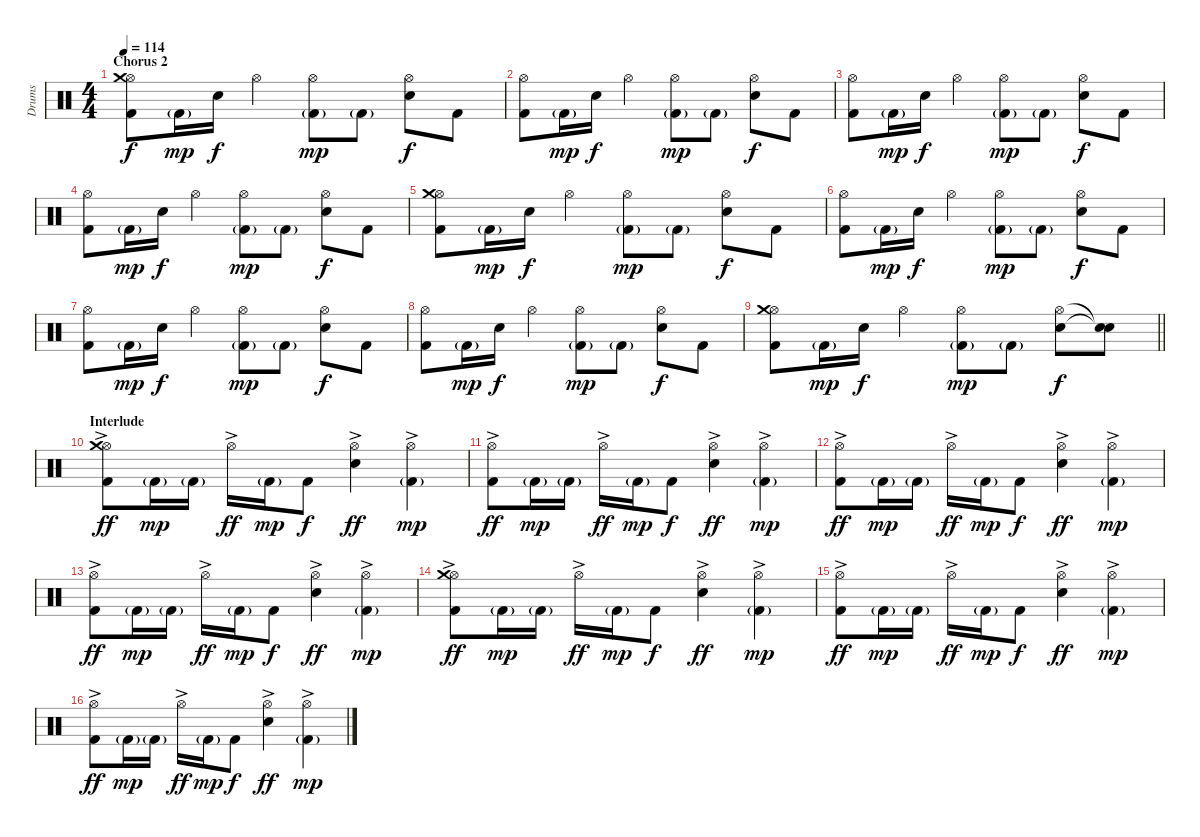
\track ("Drums" "Drums") {instrument percussion}
\staff {score}
\articulation defaults
\ts (4 4)
\section ("" "Chorus 2")
\tempo 114
\clef neutral
\ks c
("Hi-Hat (open)" "Crash medium (hit)" "Kick (hit) 2").8{dy f} "Kick (hit) 2"{g}.16{dy mp} "Electric Snare (hit)".16{dy f} "Hi-Hat (open)".4 ("Hi-Hat (open)" "Kick (hit) 2"{g}).8{dy mp} "Kick (hit) 2"{g}.8 ("Hi-Hat (open)" "Electric Snare (hit)").8{dy f} "Kick (hit) 2".8 |
("Hi-Hat (open)" "Kick (hit) 2").8 "Kick (hit) 2"{g}.16{dy mp} "Electric Snare (hit)".16{dy f} "Hi-Hat (open)".4 ("Hi-Hat (open)" "Kick (hit) 2"{g}).8{dy mp} "Kick (hit) 2"{g}.8 ("Hi-Hat (open)" "Electric Snare (hit)").8{dy f} "Kick (hit) 2".8 |
("Hi-Hat (open)" "Kick (hit) 2").8 "Kick (hit) 2"{g}.16{dy mp} "Electric Snare (hit)".16{dy f} "Hi-Hat (open)".4 ("Hi-Hat (open)" "Kick (hit) 2"{g}).8{dy mp} "Kick (hit) 2"{g}.8 ("Hi-Hat (open)" "Electric Snare (hit)").8{dy f} "Kick (hit) 2".8 |
("Hi-Hat (open)" "Kick (hit) 2").8 "Kick (hit) 2"{g}.16{dy mp} "Electric Snare (hit)".16{dy f} "Hi-Hat (open)".4 ("Hi-Hat (open)" "Kick (hit) 2"{g}).8{dy mp} "Kick (hit) 2"{g}.8 ("Hi-Hat (open)" "Electric Snare (hit)").8{dy f} "Kick (hit) 2".8 |
("Hi-Hat (open)" "Crash medium (hit)" "Kick (hit) 2").8 "Kick (hit) 2"{g}.16{dy mp} "Electric Snare (hit)".16{dy f} "Hi-Hat (open)".4 ("Hi-Hat (open)" "Kick (hit) 2"{g}).8{dy mp} "Kick (hit) 2"{g}.8 ("Hi-Hat (open)" "Electric Snare (hit)").8{dy f} "Kick (hit) 2".8 |
("Hi-Hat (open)" "Kick (hit) 2").8 "Kick (hit) 2"{g}.16{dy mp} "Electric Snare (hit)".16{dy f} "Hi-Hat (open)".4 ("Hi-Hat (open)" "Kick (hit) 2"{g}).8{dy mp} "Kick (hit) 2"{g}.8 ("Hi-Hat (open)" "Electric Snare (hit)").8{dy f} "Kick (hit) 2".8 |
("Hi-Hat (open)" "Kick (hit) 2").8 "Kick (hit) 2"{g}.16{dy mp} "Electric Snare (hit)".16{dy f} "Hi-Hat (open)".4 ("Hi-Hat (open)" "Kick (hit) 2"{g}).8{dy mp} "Kick (hit) 2"{g}.8 ("Hi-Hat (open)" "Electric Snare (hit)").8{dy f} "Kick (hit) 2".8 |
("Hi-Hat (open)" "Kick (hit) 2").8 "Kick (hit) 2"{g}.16{dy mp} "Electric Snare (hit)".16{dy f} "Hi-Hat (open)".4 ("Hi-Hat (open)" "Kick (hit) 2"{g}).8{dy mp} "Kick (hit) 2"{g}.8 ("Hi-Hat (open)" "Electric Snare (hit)").8{dy f} "Kick (hit) 2".8 |
\barLineRight lightlight
("Hi-Hat (open)" "Crash medium (hit)" "Kick (hit) 2").8 "Kick (hit) 2"{g}.16{dy mp} "Electric Snare (hit)".16{dy f} "Hi-Hat (open)".4 ("Hi-Hat (open)" "Kick (hit) 2"{g}).8{dy mp} "Kick (hit) 2"{g}.8 ("Hi-Hat (open)" "Electric Snare (hit)").8{dy f} ("Snare (hit)"{t} "Snare (hit)"{t}).8 |
\section ("" "Interlude")
("Hi-Hat (open)"{ac} "Crash medium (hit)" "Kick (hit) 2").8{dy ff} "Kick (hit) 2"{g}.16{dy mp} "Kick (hit) 2"{g}.16 "Hi-Hat (open)"{ac}.16{dy ff} "Kick (hit) 2"{g}.16{dy mp} "Kick (hit) 2".8{dy f} ("Hi-Hat (open)"{ac} "Electric Snare (hit)").4{dy ff} ("Hi-Hat (open)"{ac} "Kick (hit) 2"{g}).4{dy mp} |
("Hi-Hat (open)"{ac} "Kick (hit) 2").8{dy ff} "Kick (hit) 2"{g}.16{dy mp} "Kick (hit) 2"{g}.16 "Hi-Hat (open)"{ac}.16{dy ff} "Kick (hit) 2"{g}.16{dy mp} "Kick (hit) 2".8{dy f} ("Hi-Hat (open)"{ac} "Electric Snare (hit)").4{dy ff} ("Hi-Hat (open)"{ac} "Kick (hit) 2"{g}).4{dy mp} |
("Hi-Hat (open)"{ac} "Kick (hit) 2").8{dy ff} "Kick (hit) 2"{g}.16{dy mp} "Kick (hit) 2"{g}.16 "Hi-Hat (open)"{ac}.16{dy ff} "Kick (hit) 2"{g}.16{dy mp} "Kick (hit) 2".8{dy f} ("Hi-Hat (open)"{ac} "Electric Snare (hit)").4{dy ff} ("Hi-Hat (open)"{ac} "Kick (hit) 2"{g}).4{dy mp} |
("Hi-Hat (open)"{ac} "Kick (hit) 2").8{dy ff} "Kick (hit) 2"{g}.16{dy mp} "Kick (hit) 2"{g}.16 "Hi-Hat (open)"{ac}.16{dy ff} "Kick (hit) 2"{g}.16{dy mp} "Kick (hit) 2".8{dy f} ("Hi-Hat (open)"{ac} "Electric Snare (hit)").4{dy ff} ("Hi-Hat (open)"{ac} "Kick (hit) 2"{g}).4{dy mp} |
("Hi-Hat (open)"{ac} "Crash medium (hit)" "Kick (hit) 2").8{dy ff} "Kick (hit) 2"{g}.16{dy mp} "Kick (hit) 2"{g}.16 "Hi-Hat (open)"{ac}.16{dy ff} "Kick (hit) 2"{g}.16{dy mp} "Kick (hit) 2".8{dy f} ("Hi-Hat (open)"{ac} "Electric Snare (hit)").4{dy ff} ("Hi-Hat (open)"{ac} "Kick (hit) 2"{g}).4{dy mp} |
("Hi-Hat (open)"{ac} "Kick (hit) 2").8{dy ff} "Kick (hit) 2"{g}.16{dy mp} "Kick (hit) 2"{g}.16 "Hi-Hat (open)"{ac}.16{dy ff} "Kick (hit) 2"{g}.16{dy mp} "Kick (hit) 2".8{dy f} ("Hi-Hat (open)"{ac} "Electric Snare (hit)").4{dy ff} ("Hi-Hat (open)"{ac} "Kick (hit) 2"{g}).4{dy mp} |
("Hi-Hat (open)"{ac} "Kick (hit) 2").8{dy ff} "Kick (hit) 2"{g}.16{dy mp} "Kick (hit) 2"{g}.16 "Hi-Hat (open)"{ac}.16{dy ff} "Kick (hit) 2"{g}.16{dy mp} "Kick (hit) 2".8{dy f} ("Hi-Hat (open)"{ac} "Electric Snare (hit)").4{dy ff} ("Hi-Hat (open)"{ac} "Kick (hit) 2"{g}).4{dy mp}
